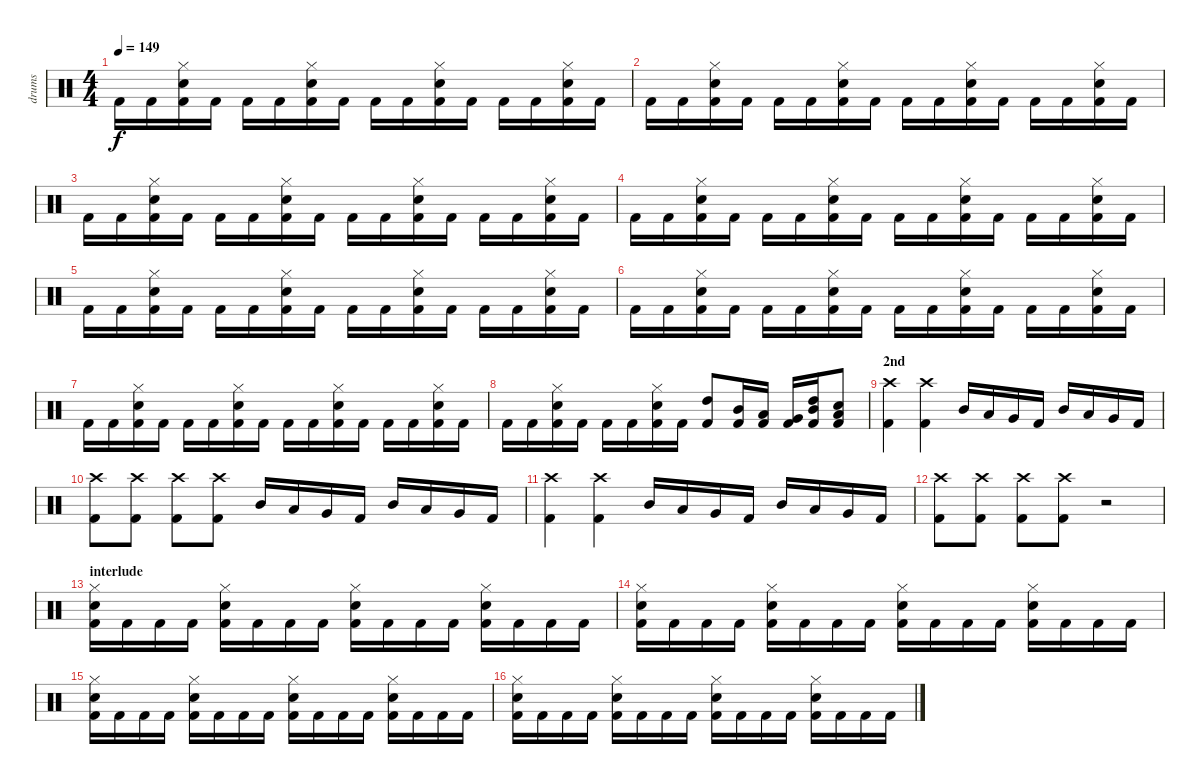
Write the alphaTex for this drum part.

\track ("drums" "drums") {instrument percussion}
\staff {score}
\articulation defaults
\ts (4 4)
\tempo 149
\clef neutral
\ks c "Kick (hit) 2".16{dy f} "Kick (hit) 2".16
("Kick (hit) 2" "Electric Snare (hit)" "Hi-Hat (closed)").16 "Kick (hit) 2".16 "Kick (hit) 2".16 "Kick (hit) 2".16 ("Kick (hit) 2" "Electric Snare (hit)" "Hi-Hat (closed)").16 "Kick (hit) 2".16 "Kick (hit) 2".16 "Kick (hit) 2".16 ("Kick (hit) 2" "Electric Snare (hit)" "Hi-Hat (closed)").16 "Kick (hit) 2".16 "Kick (hit) 2".16 "Kick (hit) 2".16 ("Kick (hit) 2" "Electric Snare (hit)" "Hi-Hat (closed)").16 "Kick (hit) 2".16 |
"Kick (hit) 2".16 "Kick (hit) 2".16 ("Kick (hit) 2" "Electric Snare (hit)" "Hi-Hat (closed)").16 "Kick (hit) 2".16 "Kick (hit) 2".16 "Kick (hit) 2".16 ("Kick (hit) 2" "Electric Snare (hit)" "Hi-Hat (closed)").16 "Kick (hit) 2".16 "Kick (hit) 2".16 "Kick (hit) 2".16 ("Kick (hit) 2" "Electric Snare (hit)" "Hi-Hat (closed)").16 "Kick (hit) 2".16 "Kick (hit) 2".16 "Kick (hit) 2".16 ("Kick (hit) 2" "Electric Snare (hit)" "Hi-Hat (closed)").16 "Kick (hit) 2".16 |
"Kick (hit) 2".16 "Kick (hit) 2".16 ("Kick (hit) 2" "Electric Snare (hit)" "Hi-Hat (closed)").16 "Kick (hit) 2".16 "Kick (hit) 2".16 "Kick (hit) 2".16 ("Kick (hit) 2" "Electric Snare (hit)" "Hi-Hat (closed)").16 "Kick (hit) 2".16 "Kick (hit) 2".16 "Kick (hit) 2".16 ("Kick (hit) 2" "Electric Snare (hit)" "Hi-Hat (closed)").16 "Kick (hit) 2".16 "Kick (hit) 2".16 "Kick (hit) 2".16 ("Kick (hit) 2" "Electric Snare (hit)" "Hi-Hat (closed)").16 "Kick (hit) 2".16 |
"Kick (hit) 2".16 "Kick (hit) 2".16 ("Kick (hit) 2" "Electric Snare (hit)" "Hi-Hat (closed)").16 "Kick (hit) 2".16 "Kick (hit) 2".16 "Kick (hit) 2".16 ("Kick (hit) 2" "Electric Snare (hit)" "Hi-Hat (closed)").16 "Kick (hit) 2".16 "Kick (hit) 2".16 "Kick (hit) 2".16 ("Kick (hit) 2" "Electric Snare (hit)" "Hi-Hat (closed)").16 "Kick (hit) 2".16 "Kick (hit) 2".16 "Kick (hit) 2".16 ("Kick (hit) 2" "Electric Snare (hit)" "Hi-Hat (closed)").16 "Kick (hit) 2".16 |
"Kick (hit) 2".16 "Kick (hit) 2".16 ("Kick (hit) 2" "Electric Snare (hit)" "Hi-Hat (closed)").16 "Kick (hit) 2".16 "Kick (hit) 2".16 "Kick (hit) 2".16 ("Kick (hit) 2" "Electric Snare (hit)" "Hi-Hat (closed)").16 "Kick (hit) 2".16 "Kick (hit) 2".16 "Kick (hit) 2".16 ("Kick (hit) 2" "Electric Snare (hit)" "Hi-Hat (closed)").16 "Kick (hit) 2".16 "Kick (hit) 2".16 "Kick (hit) 2".16 ("Kick (hit) 2" "Electric Snare (hit)" "Hi-Hat (closed)").16 "Kick (hit) 2".16 |
"Kick (hit) 2".16 "Kick (hit) 2".16 ("Kick (hit) 2" "Electric Snare (hit)" "Hi-Hat (closed)").16 "Kick (hit) 2".16 "Kick (hit) 2".16 "Kick (hit) 2".16 ("Kick (hit) 2" "Electric Snare (hit)" "Hi-Hat (closed)").16 "Kick (hit) 2".16 "Kick (hit) 2".16 "Kick (hit) 2".16 ("Kick (hit) 2" "Electric Snare (hit)" "Hi-Hat (closed)").16 "Kick (hit) 2".16 "Kick (hit) 2".16 "Kick (hit) 2".16 ("Kick (hit) 2" "Electric Snare (hit)" "Hi-Hat (closed)").16 "Kick (hit) 2".16 |
"Kick (hit) 2".16 "Kick (hit) 2".16 ("Kick (hit) 2" "Electric Snare (hit)" "Hi-Hat (closed)").16 "Kick (hit) 2".16 "Kick (hit) 2".16 "Kick (hit) 2".16 ("Kick (hit) 2" "Electric Snare (hit)" "Hi-Hat (closed)").16 "Kick (hit) 2".16 "Kick (hit) 2".16 "Kick (hit) 2".16 ("Kick (hit) 2" "Electric Snare (hit)" "Hi-Hat (closed)").16 "Kick (hit) 2".16 "Kick (hit) 2".16 "Kick (hit) 2".16 ("Kick (hit) 2" "Electric Snare (hit)" "Hi-Hat (closed)").16 "Kick (hit) 2".16 |
"Kick (hit) 2".16 "Kick (hit) 2".16 ("Kick (hit) 2" "Electric Snare (hit)" "Hi-Hat (closed)").16 "Kick (hit) 2".16 "Kick (hit) 2".16 "Kick (hit) 2".16 ("Kick (hit) 2" "Electric Snare (hit)" "Hi-Hat (closed)").16 "Kick (hit) 2".16 ("Kick (hit) 2" "High Tom (hit)").8 ("Kick (hit) 2" "Mid Tom (hit)").16 ("Kick (hit) 2" "Low Tom (hit)").16 ("Kick (hit) 2" "Very Low Tom (hit)").16 ("Kick (hit) 2" "Mid Tom (hit)" "High Tom (hit)").16 ("Kick (hit) 2" "Electric Snare (hit)" "Low Tom (hit)").8 |
\section ("" "2nd")
("Kick (hit) 2" "Crash high (hit)").4 ("Kick (hit) 2" "Crash high (hit)").4 "Mid Tom (hit)".16 "Low Tom (hit)".16 "Very Low Tom (hit)".16 "Kick (hit) 2".16 "Mid Tom (hit)".16 "Low Tom (hit)".16 "Very Low Tom (hit)".16 "Kick (hit) 2".16 |
("Kick (hit) 2" "Crash high (hit)").8 ("Kick (hit) 2" "Crash high (hit)").8 ("Kick (hit) 2" "Crash high (hit)").8 ("Kick (hit) 2" "Crash high (hit)").8 "Mid Tom (hit)".16 "Low Tom (hit)".16 "Very Low Tom (hit)".16 "Kick (hit) 2".16 "Mid Tom (hit)".16 "Low Tom (hit)".16 "Very Low Tom (hit)".16 "Kick (hit) 2".16 |
("Kick (hit) 2" "Crash high (hit)").4 ("Kick (hit) 2" "Crash high (hit)").4 "Mid Tom (hit)".16 "Low Tom (hit)".16 "Very Low Tom (hit)".16 "Kick (hit) 2".16 "Mid Tom (hit)".16 "Low Tom (hit)".16 "Very Low Tom (hit)".16 "Kick (hit) 2".16 |
("Kick (hit) 2" "Crash high (hit)").8 ("Kick (hit) 2" "Crash high (hit)").8 ("Kick (hit) 2" "Crash high (hit)").8 ("Kick (hit) 2" "Crash high (hit)").8 r.2 |
\section ("" "interlude")
("Kick (hit) 2" "Electric Snare (hit)" "Hi-Hat (closed)").16 "Kick (hit) 2".16 "Kick (hit) 2".16 "Kick (hit) 2".16 ("Kick (hit) 2" "Electric Snare (hit)" "Hi-Hat (closed)").16 "Kick (hit) 2".16 "Kick (hit) 2".16 "Kick (hit) 2".16 ("Kick (hit) 2" "Electric Snare (hit)" "Hi-Hat (closed)").16 "Kick (hit) 2".16 "Kick (hit) 2".16 "Kick (hit) 2".16 ("Kick (hit) 2" "Electric Snare (hit)" "Hi-Hat (closed)").16 "Kick (hit) 2".16 "Kick (hit) 2".16 "Kick (hit) 2".16 |
("Kick (hit) 2" "Electric Snare (hit)" "Hi-Hat (closed)").16 "Kick (hit) 2".16 "Kick (hit) 2".16 "Kick (hit) 2".16 ("Kick (hit) 2" "Electric Snare (hit)" "Hi-Hat (closed)").16 "Kick (hit) 2".16 "Kick (hit) 2".16 "Kick (hit) 2".16 ("Kick (hit) 2" "Electric Snare (hit)" "Hi-Hat (closed)").16 "Kick (hit) 2".16 "Kick (hit) 2".16 "Kick (hit) 2".16 ("Kick (hit) 2" "Electric Snare (hit)" "Hi-Hat (closed)").16 "Kick (hit) 2".16 "Kick (hit) 2".16 "Kick (hit) 2".16 |
("Kick (hit) 2" "Electric Snare (hit)" "Hi-Hat (closed)").16 "Kick (hit) 2".16 "Kick (hit) 2".16 "Kick (hit) 2".16 ("Kick (hit) 2" "Electric Snare (hit)" "Hi-Hat (closed)").16 "Kick (hit) 2".16 "Kick (hit) 2".16 "Kick (hit) 2".16 ("Kick (hit) 2" "Electric Snare (hit)" "Hi-Hat (closed)").16 "Kick (hit) 2".16 "Kick (hit) 2".16 "Kick (hit) 2".16 ("Kick (hit) 2" "Electric Snare (hit)" "Hi-Hat (closed)").16 "Kick (hit) 2".16 "Kick (hit) 2".16 "Kick (hit) 2".16 |
("Kick (hit) 2" "Electric Snare (hit)" "Hi-Hat (closed)").16 "Kick (hit) 2".16 "Kick (hit) 2".16 "Kick (hit) 2".16 ("Kick (hit) 2" "Electric Snare (hit)" "Hi-Hat (closed)").16 "Kick (hit) 2".16 "Kick (hit) 2".16 "Kick (hit) 2".16 ("Kick (hit) 2" "Electric Snare (hit)" "Hi-Hat (closed)").16 "Kick (hit) 2".16 "Kick (hit) 2".16 "Kick (hit) 2".16 ("Kick (hit) 2" "Electric Snare (hit)" "Hi-Hat (closed)").16 "Kick (hit) 2".16 "Kick (hit) 2".16 "Kick (hit) 2".16
